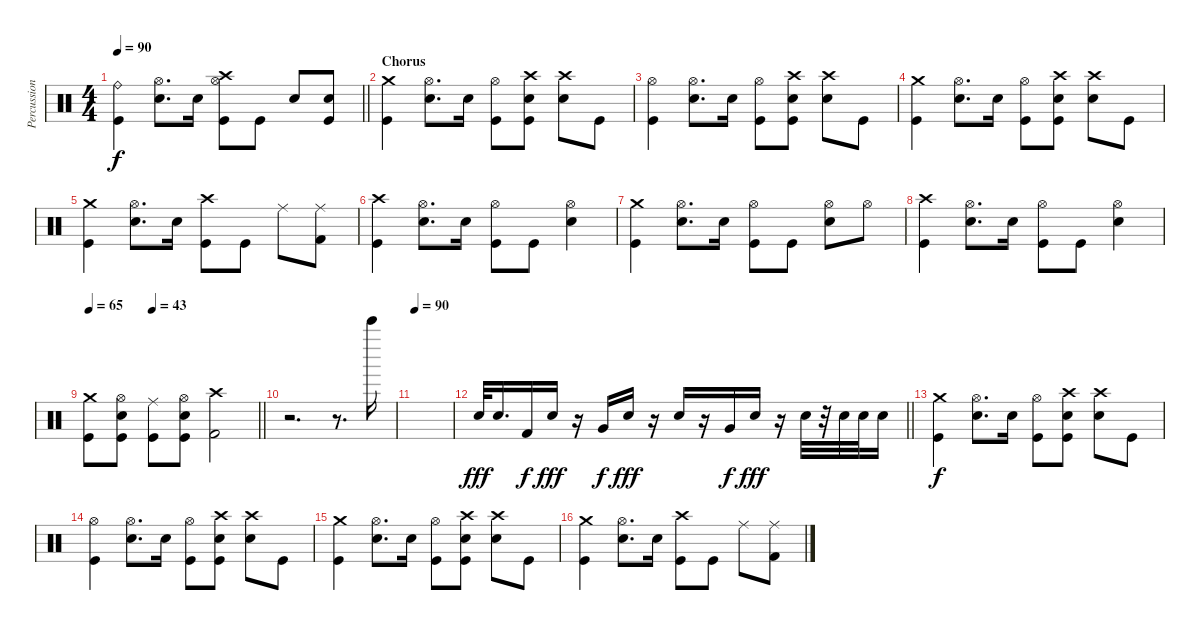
\track ("Percussion" "Percussion") {instrument percussion}
\staff {score}
\articulation defaults
\ts (4 4)
\tempo 90
\clef neutral
\barLineRight lightlight
\ks c
("Ride (bell)" "Kick (hit)").4{dy f} ("Electric Snare (hit)" "Hi-Hat (open)").8{d} "Electric Snare (hit)".16 ("Crash high (hit)" "Hi-Hat (open)" "Kick (hit)").8 "Kick (hit)".8 "Electric Snare (hit)".8 ("Electric Snare (hit)" "Kick (hit)").8 |
\section ("" "Chorus")
("Crash medium (hit)" "Kick (hit)").4 ("Electric Snare (hit)" "Hi-Hat (open)").8{d} "Electric Snare (hit)".16 ("Hi-Hat (open)" "Kick (hit)").8 ("Crash high (hit)" "Electric Snare (hit)" "Kick (hit)").8 ("Crash high (hit)" "Electric Snare (hit)").8 "Kick (hit)".8 |
("Hi-Hat (open)" "Kick (hit)").4 ("Electric Snare (hit)" "Hi-Hat (open)").8{d} "Electric Snare (hit)".16 ("Hi-Hat (open)" "Kick (hit)").8 ("Crash high (hit)" "Electric Snare (hit)" "Kick (hit)").8 ("Crash high (hit)" "Electric Snare (hit)").8 "Kick (hit)".8 |
("Crash medium (hit)" "Kick (hit)").4 ("Electric Snare (hit)" "Hi-Hat (open)").8{d} "Electric Snare (hit)".16 ("Hi-Hat (open)" "Kick (hit)").8 ("Crash high (hit)" "Electric Snare (hit)" "Kick (hit)").8 ("Crash high (hit)" "Electric Snare (hit)").8 "Kick (hit)".8 |
("Crash medium (hit)" "Kick (hit)").4 ("Electric Snare (hit)" "Hi-Hat (open)").8{d} "Electric Snare (hit)".16 ("Crash high (hit)" "Kick (hit)").8 "Kick (hit)".8 "Ride (middle)".8 ("Ride (middle)" "Kick (hit) 2").8 |
("Crash high (hit)" "Kick (hit)").4 ("Electric Snare (hit)" "Hi-Hat (open)").8{d} "Electric Snare (hit)".16 ("Hi-Hat (open)" "Kick (hit)").8 "Kick (hit)".8 ("Electric Snare (hit)" "Hi-Hat (open)").4 |
("Crash medium (hit)" "Kick (hit)").4 ("Electric Snare (hit)" "Hi-Hat (open)").8{d} "Electric Snare (hit)".16 ("Hi-Hat (open)" "Kick (hit)").8 "Kick (hit)".8 ("Electric Snare (hit)" "Hi-Hat (open)").8 "Hi-Hat (open)".8 |
("Crash high (hit)" "Kick (hit)").4 ("Electric Snare (hit)" "Hi-Hat (open)").8{d} "Electric Snare (hit)".16 ("Hi-Hat (open)" "Kick (hit)").8 "Kick (hit)".8 ("Electric Snare (hit)" "Hi-Hat (open)").4 |
\tempo 65
\tempo (43 0.375)
\barLineRight lightlight
("Crash medium (hit)" "Kick (hit)").8 ("Electric Snare (hit)" "Hi-Hat (open)" "Kick (hit)").8 ("Ride (middle)" "Kick (hit)").8 ("Electric Snare (hit)" "Hi-Hat (open)" "Kick (hit)").8 ("Crash high (hit)" "Kick (hit) 2").2 |
r.2{d} r.8{d} "Bell Tree (hit)".16 |
\tempo 90
|
\barLineRight lightlight "Electric Snare (hit)".32{dy fff} "Electric Snare (hit)".16{d} "Kick (hit) 2".16{dy f} "Electric Snare (hit)".16{dy fff}
r.16 "Very Low Tom (hit)".16{dy f} "Electric Snare (hit)".16{dy fff} r.16 "Electric Snare (hit)".16 r.16 "Very Low Tom (hit)".16{dy f} "Electric Snare (hit)".16{dy fff} r.16 "Electric Snare (hit)".32 r.32 "Electric Snare (hit)".32 "Electric Snare (hit)".32 "Electric Snare (hit)".16 |
("Crash medium (hit)" "Kick (hit)").4{dy f} ("Electric Snare (hit)" "Hi-Hat (open)").8{d} "Electric Snare (hit)".16 ("Hi-Hat (open)" "Kick (hit)").8 ("Crash high (hit)" "Electric Snare (hit)" "Kick (hit)").8 ("Crash high (hit)" "Electric Snare (hit)").8 "Kick (hit)".8 |
("Hi-Hat (open)" "Kick (hit)").4 ("Electric Snare (hit)" "Hi-Hat (open)").8{d} "Electric Snare (hit)".16 ("Hi-Hat (open)" "Kick (hit)").8 ("Crash high (hit)" "Electric Snare (hit)" "Kick (hit)").8 ("Crash high (hit)" "Electric Snare (hit)").8 "Kick (hit)".8 |
("Crash medium (hit)" "Kick (hit)").4 ("Electric Snare (hit)" "Hi-Hat (open)").8{d} "Electric Snare (hit)".16 ("Hi-Hat (open)" "Kick (hit)").8 ("Crash high (hit)" "Electric Snare (hit)" "Kick (hit)").8 ("Crash high (hit)" "Electric Snare (hit)").8 "Kick (hit)".8 |
("Crash medium (hit)" "Kick (hit)").4 ("Electric Snare (hit)" "Hi-Hat (open)").8{d} "Electric Snare (hit)".16 ("Crash high (hit)" "Kick (hit)").8 "Kick (hit)".8 "Ride (middle)".8 ("Ride (middle)" "Kick (hit) 2").8
